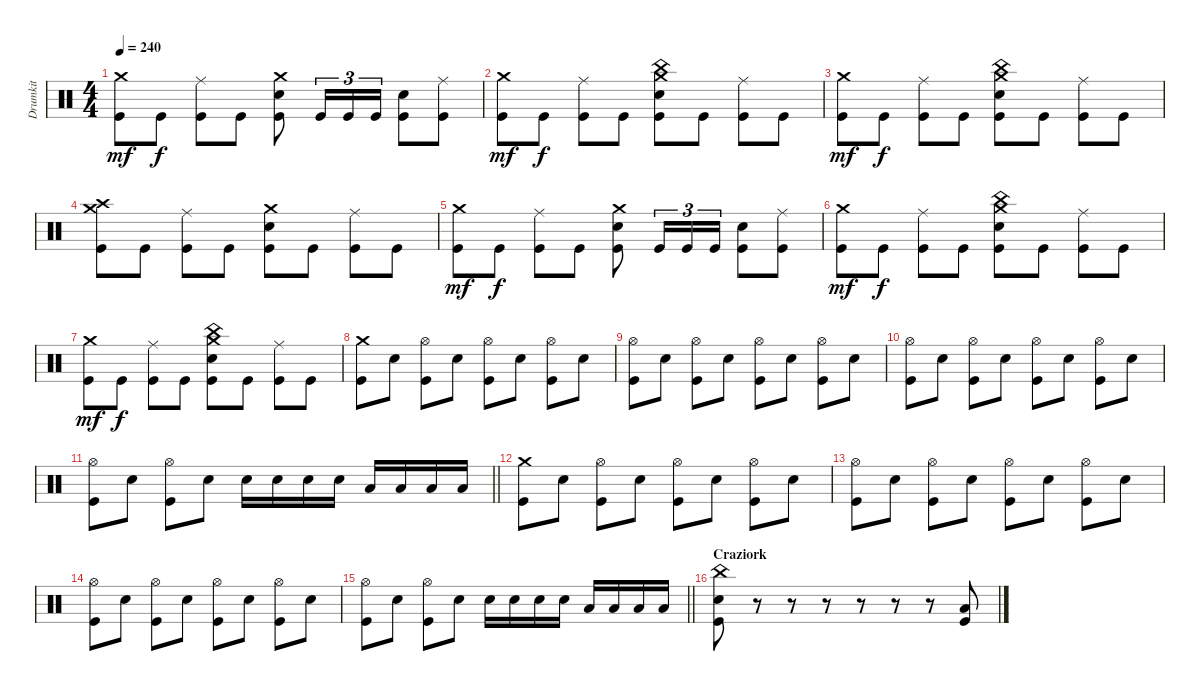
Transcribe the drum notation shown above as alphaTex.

\track ("Drumkit" "Drumkit") {instrument percussion}
\staff {score}
\articulation defaults
\ts (4 4)
\tempo 240
\clef neutral
\ks c
("Crash medium (hit)" "Kick (hit)").8{dy mf} "Kick (hit)".8{dy f} ("Ride (middle)" "Kick (hit)").8 "Kick (hit)".8 ("Crash medium (hit)" "Snare (hit) 2" "Kick (hit)").8 "Kick (hit)".16{tu (3 2)} "Kick (hit)".16{tu (3 2)} "Kick (hit)".16{tu (3 2)} ("Snare (hit) 2" "Kick (hit)").8 ("Ride (middle)" "Kick (hit)").8 |
("Crash medium (hit)" "Kick (hit)").8{dy mf} "Kick (hit)".8{dy f} ("Ride (middle)" "Kick (hit)").8 "Kick (hit)".8 ("China (hit)" "Crash medium (hit)" "Snare (hit) 2" "Kick (hit)").8 "Kick (hit)".8 ("Ride (middle)" "Kick (hit)").8 "Kick (hit)".8 |
("Crash medium (hit)" "Kick (hit)").8{dy mf} "Kick (hit)".8{dy f} ("Ride (middle)" "Kick (hit)").8 "Kick (hit)".8 ("China (hit)" "Crash medium (hit)" "Snare (hit) 2" "Kick (hit)").8 "Kick (hit)".8 ("Ride (middle)" "Kick (hit)").8 "Kick (hit)".8 |
("Crash high (hit)" "Crash medium (hit)" "Kick (hit)").8 "Kick (hit)".8 ("Ride (middle)" "Kick (hit)").8 "Kick (hit)".8 ("Crash medium (hit)" "Snare (hit) 2" "Kick (hit)").8 "Kick (hit)".8 ("Ride (middle)" "Kick (hit)").8 "Kick (hit)".8 |
("Crash medium (hit)" "Kick (hit)").8{dy mf} "Kick (hit)".8{dy f} ("Ride (middle)" "Kick (hit)").8 "Kick (hit)".8 ("Crash medium (hit)" "Snare (hit) 2" "Kick (hit)").8 "Kick (hit)".16{tu (3 2)} "Kick (hit)".16{tu (3 2)} "Kick (hit)".16{tu (3 2)} ("Snare (hit) 2" "Kick (hit)").8 ("Ride (middle)" "Kick (hit)").8 |
("Crash medium (hit)" "Kick (hit)").8{dy mf} "Kick (hit)".8{dy f} ("Ride (middle)" "Kick (hit)").8 "Kick (hit)".8 ("China (hit)" "Crash medium (hit)" "Snare (hit) 2" "Kick (hit)").8 "Kick (hit)".8 ("Ride (middle)" "Kick (hit)").8 "Kick (hit)".8 |
("Crash medium (hit)" "Kick (hit)").8{dy mf} "Kick (hit)".8{dy f} ("Ride (middle)" "Kick (hit)").8 "Kick (hit)".8 ("China (hit)" "Crash medium (hit)" "Snare (hit) 2" "Kick (hit)").8 "Kick (hit)".8 ("Ride (middle)" "Kick (hit)").8 "Kick (hit)".8 |
("Crash medium (hit)" "Kick (hit)").8 "Snare (hit) 2".8 ("Hi-Hat (open)" "Kick (hit)").8 "Snare (hit) 2".8 ("Hi-Hat (open)" "Kick (hit)").8 "Snare (hit) 2".8 ("Hi-Hat (open)" "Kick (hit)").8 "Snare (hit) 2".8 |
("Hi-Hat (open)" "Kick (hit)").8 "Snare (hit) 2".8 ("Hi-Hat (open)" "Kick (hit)").8 "Snare (hit) 2".8 ("Hi-Hat (open)" "Kick (hit)").8 "Snare (hit) 2".8 ("Hi-Hat (open)" "Kick (hit)").8 "Snare (hit) 2".8 |
("Hi-Hat (open)" "Kick (hit)").8 "Snare (hit) 2".8 ("Hi-Hat (open)" "Kick (hit)").8 "Snare (hit) 2".8 ("Hi-Hat (open)" "Kick (hit)").8 "Snare (hit) 2".8 ("Hi-Hat (open)" "Kick (hit)").8 "Snare (hit) 2".8 |
\barLineRight lightlight
("Hi-Hat (open)" "Kick (hit)").8 "Snare (hit) 2".8 ("Hi-Hat (open)" "Kick (hit)").8 "Snare (hit) 2".8 "Snare (hit) 2".16 "Snare (hit) 2".16 "Snare (hit) 2".16 "Snare (hit) 2".16 "Low Tom (hit)".16 "Low Tom (hit)".16 "Low Tom (hit)".16 "Low Tom (hit)".16 |
("Crash medium (hit)" "Kick (hit)").8 "Snare (hit) 2".8 ("Hi-Hat (open)" "Kick (hit)").8 "Snare (hit) 2".8 ("Hi-Hat (open)" "Kick (hit)").8 "Snare (hit) 2".8 ("Hi-Hat (open)" "Kick (hit)").8 "Snare (hit) 2".8 |
("Hi-Hat (open)" "Kick (hit)").8 "Snare (hit) 2".8 ("Hi-Hat (open)" "Kick (hit)").8 "Snare (hit) 2".8 ("Hi-Hat (open)" "Kick (hit)").8 "Snare (hit) 2".8 ("Hi-Hat (open)" "Kick (hit)").8 "Snare (hit) 2".8 |
("Hi-Hat (open)" "Kick (hit)").8 "Snare (hit) 2".8 ("Hi-Hat (open)" "Kick (hit)").8 "Snare (hit) 2".8 ("Hi-Hat (open)" "Kick (hit)").8 "Snare (hit) 2".8 ("Hi-Hat (open)" "Kick (hit)").8 "Snare (hit) 2".8 |
\barLineRight lightlight
("Hi-Hat (open)" "Kick (hit)").8 "Snare (hit) 2".8 ("Hi-Hat (open)" "Kick (hit)").8 "Snare (hit) 2".8 "Snare (hit) 2".16 "Snare (hit) 2".16 "Snare (hit) 2".16 "Snare (hit) 2".16 "Low Tom (hit)".16 "Low Tom (hit)".16 "Low Tom (hit)".16 "Low Tom (hit)".16 |
\section ("" "Craziork")
("China (hit)" "Snare (hit) 2" "Kick (hit)").8 r.8 r.8 r.8 r.8 r.8 r.8 ("Low Floor Tom (hit)" "Kick (hit)").8
